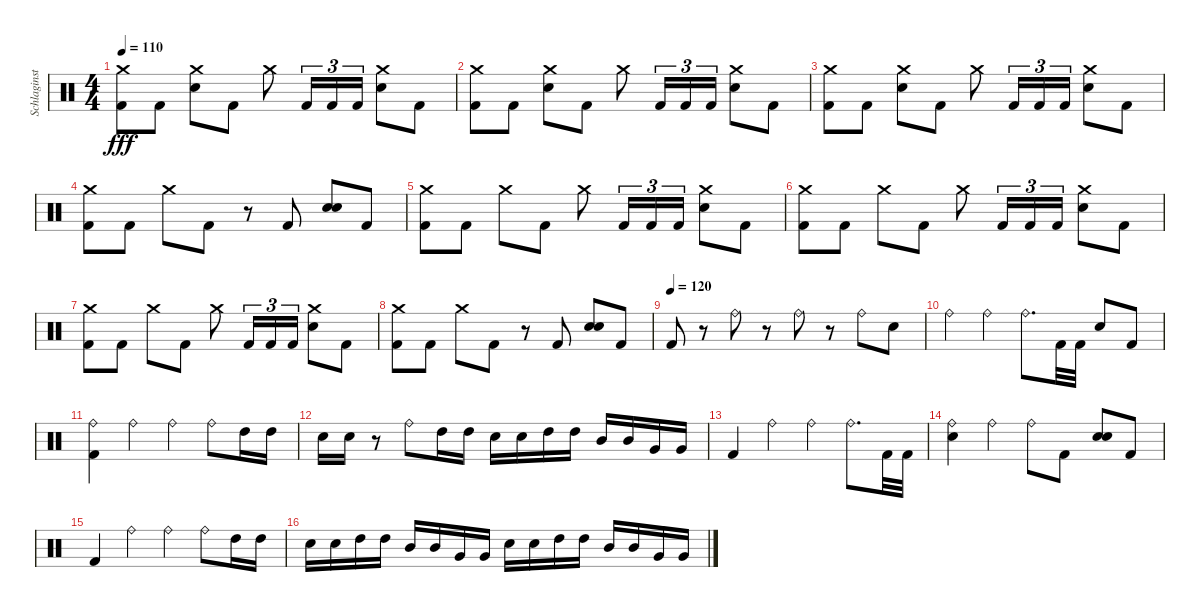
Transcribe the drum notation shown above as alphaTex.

\track ("Schlaginstrumente - Auswahl" "Schlaginst") {instrument percussion}
\staff {score}
\articulation defaults
\ts (4 4)
\tempo 110
\clef neutral
\ks c
("Crash medium (hit)" "Kick (hit) 2").8{dy fff} "Kick (hit) 2".8 ("Crash medium (hit)" "Electric Snare (hit)").8 "Kick (hit) 2".8 "Crash medium (hit)".8 "Kick (hit) 2".16{tu (3 2)} "Kick (hit) 2".16{tu (3 2)} "Kick (hit) 2".16{tu (3 2)} ("Crash medium (hit)" "Electric Snare (hit)").8 "Kick (hit) 2".8 |
("Crash medium (hit)" "Kick (hit) 2").8 "Kick (hit) 2".8 ("Crash medium (hit)" "Electric Snare (hit)").8 "Kick (hit) 2".8 "Crash medium (hit)".8 "Kick (hit) 2".16{tu (3 2)} "Kick (hit) 2".16{tu (3 2)} "Kick (hit) 2".16{tu (3 2)} ("Crash medium (hit)" "Electric Snare (hit)").8 "Kick (hit) 2".8 |
("Crash medium (hit)" "Kick (hit) 2").8 "Kick (hit) 2".8 ("Crash medium (hit)" "Electric Snare (hit)").8 "Kick (hit) 2".8 "Crash medium (hit)".8 "Kick (hit) 2".16{tu (3 2)} "Kick (hit) 2".16{tu (3 2)} "Kick (hit) 2".16{tu (3 2)} ("Crash medium (hit)" "Electric Snare (hit)").8 "Kick (hit) 2".8 |
("Crash medium (hit)" "Kick (hit) 2").8 "Kick (hit) 2".8 "Crash medium (hit)".8 "Kick (hit) 2".8 r.8 "Kick (hit) 2".8 ("Electric Snare (hit)" "Electric Snare (hit)").8 "Kick (hit) 2".8 |
("Crash medium (hit)" "Kick (hit) 2").8 "Kick (hit) 2".8 "Crash medium (hit)".8 "Kick (hit) 2".8 "Crash medium (hit)".8 "Kick (hit) 2".16{tu (3 2)} "Kick (hit) 2".16{tu (3 2)} "Kick (hit) 2".16{tu (3 2)} ("Crash medium (hit)" "Electric Snare (hit)").8 "Kick (hit) 2".8 |
("Crash medium (hit)" "Kick (hit) 2").8 "Kick (hit) 2".8 "Crash medium (hit)".8 "Kick (hit) 2".8 "Crash medium (hit)".8 "Kick (hit) 2".16{tu (3 2)} "Kick (hit) 2".16{tu (3 2)} "Kick (hit) 2".16{tu (3 2)} ("Crash medium (hit)" "Electric Snare (hit)").8 "Kick (hit) 2".8 |
("Crash medium (hit)" "Kick (hit) 2").8 "Kick (hit) 2".8 "Crash medium (hit)".8 "Kick (hit) 2".8 "Crash medium (hit)".8 "Kick (hit) 2".16{tu (3 2)} "Kick (hit) 2".16{tu (3 2)} "Kick (hit) 2".16{tu (3 2)} ("Crash medium (hit)" "Electric Snare (hit)").8 "Kick (hit) 2".8 |
("Crash medium (hit)" "Kick (hit) 2").8 "Kick (hit) 2".8 "Crash medium (hit)".8 "Kick (hit) 2".8 r.8 "Kick (hit) 2".8 ("Electric Snare (hit)" "Electric Snare (hit)").8 "Kick (hit) 2".8 |
\tempo (120)
"Kick (hit) 2".8 r.8 "Ride (bell)".8 r.8 "Ride (bell)".8 r.8 "Ride (bell)".8 "Electric Snare (hit)".8 |
"Ride (bell)".4 "Ride (bell)".4 "Ride (bell)".8{d} "Kick (hit) 2".32 "Kick (hit) 2".32 "Electric Snare (hit)".8 "Kick (hit) 2".8 |
("Ride (bell)" "Kick (hit) 2").4 "Ride (bell)".4 "Ride (bell)".4 "Ride (bell)".8 "High Tom (hit)".16 "High Tom (hit)".16 |
"Electric Snare (hit)".16 "Electric Snare (hit)".16 r.8 "Ride (bell)".8 "High Tom (hit)".16 "High Tom (hit)".16 "Electric Snare (hit)".16 "Electric Snare (hit)".16 "High Tom (hit)".16 "High Tom (hit)".16 "Mid Tom (hit)".16 "Mid Tom (hit)".16 "Very Low Tom (hit)".16 "Very Low Tom (hit)".16 |
"Kick (hit) 2".4 "Ride (bell)".4 "Ride (bell)".4 "Ride (bell)".8{d} "Kick (hit) 2".32 "Kick (hit) 2".32 |
("Ride (bell)" "Electric Snare (hit)").4 "Ride (bell)".4 "Ride (bell)".8 "Kick (hit) 2".8 ("Electric Snare (hit)" "Electric Snare (hit)").8 "Kick (hit) 2".8 |
"Kick (hit) 2".4 "Ride (bell)".4 "Ride (bell)".4 "Ride (bell)".8 "High Tom (hit)".16 "High Tom (hit)".16 |
"Electric Snare (hit)".16 "Electric Snare (hit)".16 "High Tom (hit)".16 "High Tom (hit)".16 "Mid Tom (hit)".16 "Mid Tom (hit)".16 "Very Low Tom (hit)".16 "Very Low Tom (hit)".16 "Electric Snare (hit)".16 "Electric Snare (hit)".16 "High Tom (hit)".16 "High Tom (hit)".16 "Mid Tom (hit)".16 "Mid Tom (hit)".16 "Very Low Tom (hit)".16 "Very Low Tom (hit)".16
